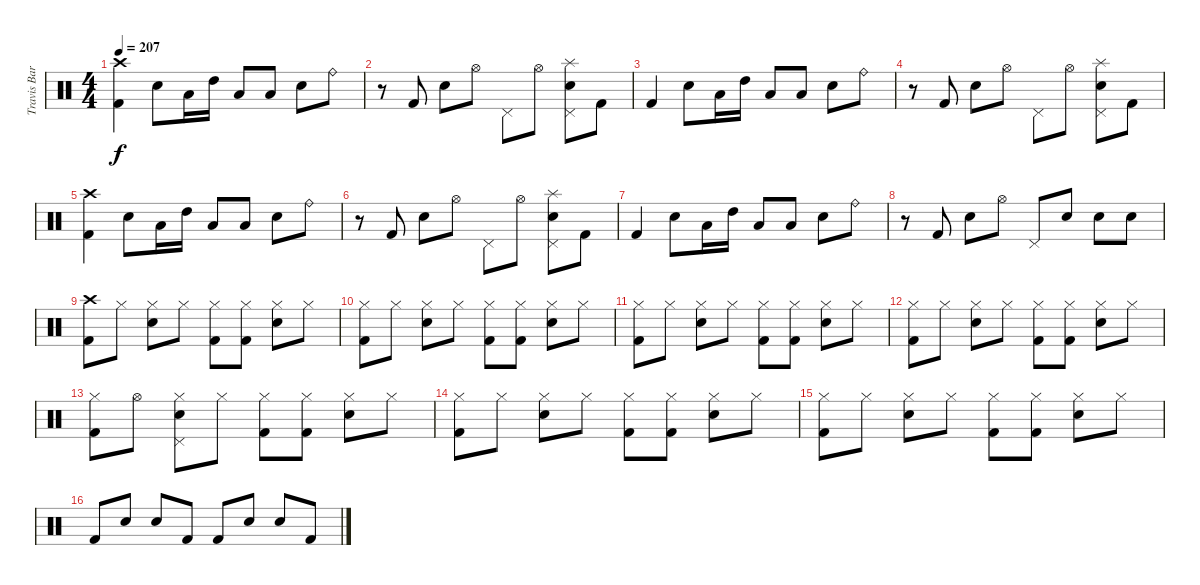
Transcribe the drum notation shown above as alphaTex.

\track ("Travis Barker" "Travis Bar") {instrument percussion}
\staff {score}
\articulation defaults
\ts (4 4)
\tempo 207
\clef neutral
\ks c
("Crash high (hit)" "Kick (hit) 2").4{dy f} "Electric Snare (hit)".8 "Low Tom (hit)".16 "High Tom (hit)".16 "Low Tom (hit)".8 "Low Tom (hit)".8 "Electric Snare (hit)".8 "Ride (bell)".8 |
r.8 "Kick (hit) 2".8 "Electric Snare (hit)".8 "Hi-Hat (open)".8 "Pedal Hi-Hat (hit)".8 "Hi-Hat (open)".8 ("Pedal Hi-Hat (hit)" "Splash (hit)" "Electric Snare (hit)").8 "Kick (hit) 2".8 |
"Kick (hit) 2".4 "Electric Snare (hit)".8 "Low Tom (hit)".16 "High Tom (hit)".16 "Low Tom (hit)".8 "Low Tom (hit)".8 "Electric Snare (hit)".8 "Ride (bell)".8 |
r.8 "Kick (hit) 2".8 "Electric Snare (hit)".8 "Hi-Hat (open)".8 "Pedal Hi-Hat (hit)".8 "Hi-Hat (open)".8 ("Pedal Hi-Hat (hit)" "Splash (hit)" "Electric Snare (hit)").8 "Kick (hit) 2".8 |
("Crash high (hit)" "Kick (hit) 2").4 "Electric Snare (hit)".8 "Low Tom (hit)".16 "High Tom (hit)".16 "Low Tom (hit)".8 "Low Tom (hit)".8 "Electric Snare (hit)".8 "Ride (bell)".8 |
r.8 "Kick (hit) 2".8 "Electric Snare (hit)".8 "Hi-Hat (open)".8 "Pedal Hi-Hat (hit)".8 "Hi-Hat (open)".8 ("Pedal Hi-Hat (hit)" "Splash (hit)" "Electric Snare (hit)").8 "Kick (hit) 2".8 |
"Kick (hit) 2".4 "Electric Snare (hit)".8 "Low Tom (hit)".16 "High Tom (hit)".16 "Low Tom (hit)".8 "Low Tom (hit)".8 "Electric Snare (hit)".8 "Ride (bell)".8 |
r.8 "Kick (hit) 2".8 "Electric Snare (hit)".8 "Hi-Hat (open)".8 "Pedal Hi-Hat (hit)".8 "Electric Snare (hit)".8 "Electric Snare (hit)".8 "Electric Snare (hit)".8 |
("Crash high (hit)" "Kick (hit) 2").8 "Hi-Hat (closed)".8 ("Hi-Hat (closed)" "Electric Snare (hit)").8 "Hi-Hat (closed)".8 ("Hi-Hat (closed)" "Kick (hit) 2").8 ("Hi-Hat (closed)" "Kick (hit) 2").8 ("Hi-Hat (closed)" "Electric Snare (hit)").8 "Hi-Hat (closed)".8 |
("Hi-Hat (closed)" "Kick (hit) 2").8 "Hi-Hat (closed)".8 ("Hi-Hat (closed)" "Electric Snare (hit)").8 "Hi-Hat (closed)".8 ("Hi-Hat (closed)" "Kick (hit) 2").8 ("Hi-Hat (closed)" "Kick (hit) 2").8 ("Hi-Hat (closed)" "Electric Snare (hit)").8 "Hi-Hat (closed)".8 |
("Hi-Hat (closed)" "Kick (hit) 2").8 "Hi-Hat (closed)".8 ("Hi-Hat (closed)" "Electric Snare (hit)").8 "Hi-Hat (closed)".8 ("Hi-Hat (closed)" "Kick (hit) 2").8 ("Hi-Hat (closed)" "Kick (hit) 2").8 ("Hi-Hat (closed)" "Electric Snare (hit)").8 "Hi-Hat (closed)".8 |
("Hi-Hat (closed)" "Kick (hit) 2").8 "Hi-Hat (closed)".8 ("Hi-Hat (closed)" "Electric Snare (hit)").8 "Hi-Hat (closed)".8 ("Hi-Hat (closed)" "Kick (hit) 2").8 ("Hi-Hat (closed)" "Kick (hit) 2").8 ("Hi-Hat (closed)" "Electric Snare (hit)").8 "Hi-Hat (closed)".8 |
("Hi-Hat (closed)" "Kick (hit) 2").8 "Hi-Hat (open)".8 ("Hi-Hat (closed)" "Electric Snare (hit)" "Pedal Hi-Hat (hit)").8 "Hi-Hat (closed)".8 ("Hi-Hat (closed)" "Kick (hit) 2").8 ("Hi-Hat (closed)" "Kick (hit) 2").8 ("Hi-Hat (closed)" "Electric Snare (hit)").8 "Hi-Hat (closed)".8 |
("Hi-Hat (closed)" "Kick (hit) 2").8 "Hi-Hat (closed)".8 ("Hi-Hat (closed)" "Electric Snare (hit)").8 "Hi-Hat (closed)".8 ("Hi-Hat (closed)" "Kick (hit) 2").8 ("Hi-Hat (closed)" "Kick (hit) 2").8 ("Hi-Hat (closed)" "Electric Snare (hit)").8 "Hi-Hat (closed)".8 |
("Hi-Hat (closed)" "Kick (hit) 2").8 "Hi-Hat (closed)".8 ("Hi-Hat (closed)" "Electric Snare (hit)").8 "Hi-Hat (closed)".8 ("Hi-Hat (closed)" "Kick (hit) 2").8 ("Hi-Hat (closed)" "Kick (hit) 2").8 ("Hi-Hat (closed)" "Electric Snare (hit)").8 "Hi-Hat (closed)".8 |
"Kick (hit) 2".8 "Electric Snare (hit)".8 "Electric Snare (hit)".8 "Kick (hit) 2".8 "Kick (hit) 2".8 "Electric Snare (hit)".8 "Electric Snare (hit)".8 "Kick (hit) 2".8
